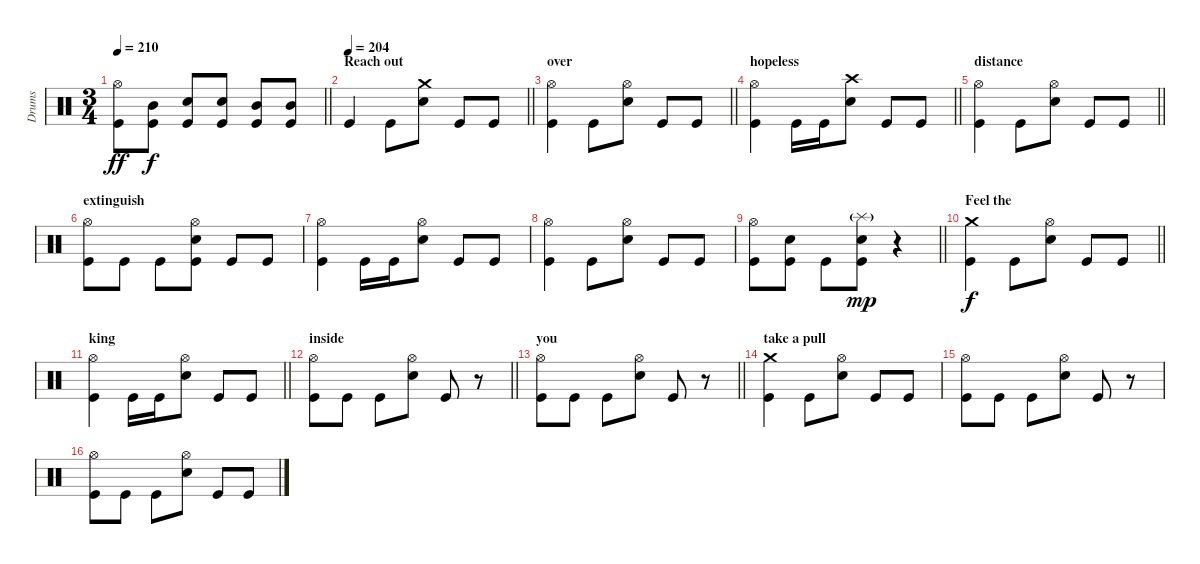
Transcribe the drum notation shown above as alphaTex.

\track ("Drums" "Drums") {instrument percussion}
\staff {score}
\articulation defaults
\ts (3 4)
\tempo 210
\clef neutral
\barLineRight lightlight
\ks c
("Hi-Hat (open)" "Kick (hit)").8{dy ff} ("Mid Tom (hit)" "Kick (hit)").8{dy f} ("Snare (hit) 2" "Kick (hit)").8 ("Snare (hit) 2" "Kick (hit)").8 ("Mid Tom (hit)" "Kick (hit)").8 ("Mid Tom (hit)" "Kick (hit)").8 |
\section ("" "Reach out ")
\tempo 204
\barLineRight lightlight "Kick (hit)".4 "Kick (hit)".8
("Crash medium (hit)" "Snare (hit) 2").8 "Kick (hit)".8 "Kick (hit)".8 |
\section ("" "over")
\barLineRight lightlight
("Hi-Hat (open)" "Kick (hit)").4 "Kick (hit)".8 ("Hi-Hat (open)" "Snare (hit) 2").8 "Kick (hit)".8 "Kick (hit)".8 |
\section ("" "hopeless ")
\barLineRight lightlight
("Hi-Hat (open)" "Kick (hit)").4 "Kick (hit)".16 "Kick (hit)".16 ("Crash high (hit)" "Snare (hit) 2").8 "Kick (hit)".8 "Kick (hit)".8 |
\section ("" "distance ")
\barLineRight lightlight
("Hi-Hat (open)" "Kick (hit)").4 "Kick (hit)".8 ("Hi-Hat (open)" "Snare (hit) 2").8 "Kick (hit)".8 "Kick (hit)".8 |
\section ("" "extinguish")
("Hi-Hat (open)" "Kick (hit)").8 "Kick (hit)".8 "Kick (hit)".8 ("Hi-Hat (open)" "Snare (hit) 2" "Kick (hit)").8 "Kick (hit)".8 "Kick (hit)".8 |
("Hi-Hat (open)" "Kick (hit)").4 "Kick (hit)".16 "Kick (hit)".16 ("Hi-Hat (open)" "Snare (hit) 2").8 "Kick (hit)".8 "Kick (hit)".8 |
("Hi-Hat (open)" "Kick (hit)").4 "Kick (hit)".8 ("Hi-Hat (open)" "Snare (hit) 2").8 "Kick (hit)".8 "Kick (hit)".8 |
\barLineRight lightlight
("Hi-Hat (open)" "Kick (hit)").8 ("Snare (hit) 2" "Kick (hit)").8 "Kick (hit)".8 ("Splash (hit)"{g} "Snare (hit) 2" "Kick (hit)").8{dy mp} r.4 |
\section ("" "Feel the ")
\barLineRight lightlight
("Crash medium (hit)" "Kick (hit)").4{dy f} "Kick (hit)".8 ("Hi-Hat (open)" "Snare (hit) 2").8 "Kick (hit)".8 "Kick (hit)".8 |
\section ("" "king")
\barLineRight lightlight
("Hi-Hat (open)" "Kick (hit)").4 "Kick (hit)".16 "Kick (hit)".16 ("Hi-Hat (open)" "Snare (hit) 2").8 "Kick (hit)".8 "Kick (hit)".8 |
\section ("" "inside ")
\barLineRight lightlight
("Hi-Hat (open)" "Kick (hit)").8 "Kick (hit)".8 "Kick (hit)".8 ("Hi-Hat (open)" "Snare (hit) 2").8 "Kick (hit)".8 r.8 |
\section ("" "you")
\barLineRight lightlight
("Hi-Hat (open)" "Kick (hit)").8 "Kick (hit)".8 "Kick (hit)".8 ("Hi-Hat (open)" "Snare (hit) 2").8 "Kick (hit)".8 r.8 |
\section ("" "take a pull")
("Crash medium (hit)" "Kick (hit)").4 "Kick (hit)".8 ("Hi-Hat (open)" "Snare (hit) 2").8 "Kick (hit)".8 "Kick (hit)".8 |
("Hi-Hat (open)" "Kick (hit)").8 "Kick (hit)".8 "Kick (hit)".8 ("Hi-Hat (open)" "Snare (hit) 2").8 "Kick (hit)".8 r.8 |
("Hi-Hat (open)" "Kick (hit)").8 "Kick (hit)".8 "Kick (hit)".8 ("Hi-Hat (open)" "Snare (hit) 2").8 "Kick (hit)".8 "Kick (hit)".8
